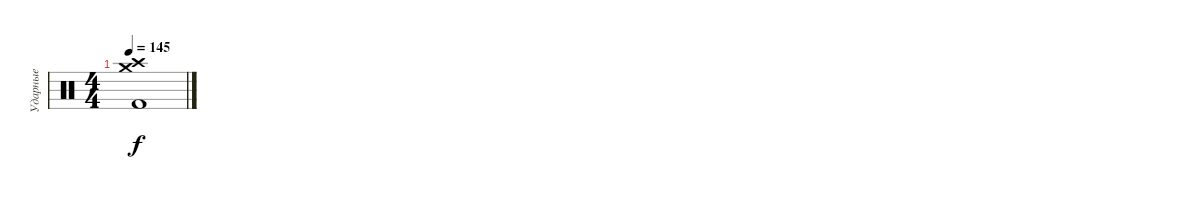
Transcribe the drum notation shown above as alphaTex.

\track ("Ударные" "Ударные") {instrument percussion}
\staff {score}
\articulation defaults
\ts (4 4)
\tempo 145
\clef neutral
\ks c
("Crash medium (hit)" "Crash high (hit)" "Kick (hit) 2").1{dy f}
